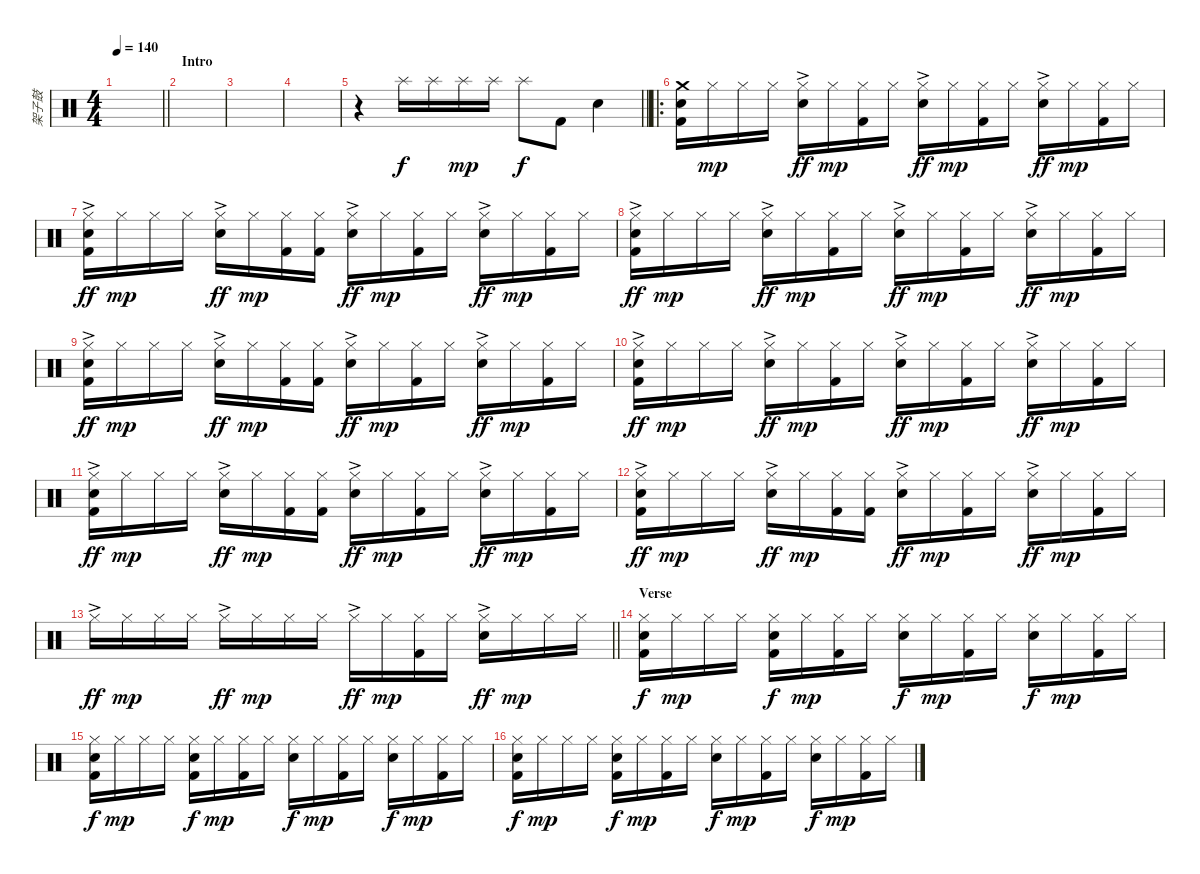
\track ("架子鼓" "架子鼓") {instrument percussion}
\staff {score}
\articulation defaults
\ts (4 4)
\tempo 140
\clef neutral
\barLineRight lightlight
\ks c
|
\section ("" "Intro")
|
|
|
\barLineRight lightlight
r.4 "Splash (hit)".16 "Splash (hit)".16 "Splash (hit)".16{dy mp} "Splash (hit)".16 "Splash (hit)".8{dy f} "Kick (hit) 2".8 "Snare (hit) 2".4 |
\ro
("Crash medium (hit)" "Electric Snare (hit)" "Kick (hit) 2").16 "Hi-Hat (closed)".16{dy mp} "Hi-Hat (closed)".16 "Hi-Hat (closed)".16 ("Hi-Hat (closed)"{ac} "Electric Snare (hit)").16{dy ff} "Hi-Hat (closed)".16{dy mp} ("Hi-Hat (closed)" "Kick (hit) 2").16 "Hi-Hat (closed)".16 ("Hi-Hat (closed)"{ac} "Electric Snare (hit)").16{dy ff} "Hi-Hat (closed)".16{dy mp} ("Hi-Hat (closed)" "Kick (hit) 2").16 "Hi-Hat (closed)".16 ("Hi-Hat (closed)"{ac} "Electric Snare (hit)").16{dy ff} "Hi-Hat (closed)".16{dy mp} ("Hi-Hat (closed)" "Kick (hit) 2").16 "Hi-Hat (closed)".16 |
("Hi-Hat (closed)"{ac} "Electric Snare (hit)" "Kick (hit) 2").16{dy ff} "Hi-Hat (closed)".16{dy mp} "Hi-Hat (closed)".16 "Hi-Hat (closed)".16 ("Hi-Hat (closed)"{ac} "Electric Snare (hit)").16{dy ff} "Hi-Hat (closed)".16{dy mp} ("Hi-Hat (closed)" "Kick (hit) 2").16 ("Hi-Hat (closed)" "Kick (hit) 2").16 ("Hi-Hat (closed)"{ac} "Electric Snare (hit)").16{dy ff} "Hi-Hat (closed)".16{dy mp} ("Hi-Hat (closed)" "Kick (hit) 2").16 "Hi-Hat (closed)".16 ("Hi-Hat (closed)"{ac} "Electric Snare (hit)").16{dy ff} "Hi-Hat (closed)".16{dy mp} ("Hi-Hat (closed)" "Kick (hit) 2").16 "Hi-Hat (closed)".16 |
("Hi-Hat (closed)"{ac} "Electric Snare (hit)" "Kick (hit) 2").16{dy ff} "Hi-Hat (closed)".16{dy mp} "Hi-Hat (closed)".16 "Hi-Hat (closed)".16 ("Hi-Hat (closed)"{ac} "Electric Snare (hit)").16{dy ff} "Hi-Hat (closed)".16{dy mp} ("Hi-Hat (closed)" "Kick (hit) 2").16 "Hi-Hat (closed)".16 ("Hi-Hat (closed)"{ac} "Electric Snare (hit)").16{dy ff} "Hi-Hat (closed)".16{dy mp} ("Hi-Hat (closed)" "Kick (hit) 2").16 "Hi-Hat (closed)".16 ("Hi-Hat (closed)"{ac} "Electric Snare (hit)").16{dy ff} "Hi-Hat (closed)".16{dy mp} ("Hi-Hat (closed)" "Kick (hit) 2").16 "Hi-Hat (closed)".16 |
("Hi-Hat (closed)"{ac} "Electric Snare (hit)" "Kick (hit) 2").16{dy ff} "Hi-Hat (closed)".16{dy mp} "Hi-Hat (closed)".16 "Hi-Hat (closed)".16 ("Hi-Hat (closed)"{ac} "Electric Snare (hit)").16{dy ff} "Hi-Hat (closed)".16{dy mp} ("Hi-Hat (closed)" "Kick (hit) 2").16 ("Hi-Hat (closed)" "Kick (hit) 2").16 ("Hi-Hat (closed)"{ac} "Electric Snare (hit)").16{dy ff} "Hi-Hat (closed)".16{dy mp} ("Hi-Hat (closed)" "Kick (hit) 2").16 "Hi-Hat (closed)".16 ("Hi-Hat (closed)"{ac} "Electric Snare (hit)").16{dy ff} "Hi-Hat (closed)".16{dy mp} ("Hi-Hat (closed)" "Kick (hit) 2").16 "Hi-Hat (closed)".16 |
("Hi-Hat (closed)"{ac} "Electric Snare (hit)" "Kick (hit) 2").16{dy ff} "Hi-Hat (closed)".16{dy mp} "Hi-Hat (closed)".16 "Hi-Hat (closed)".16 ("Hi-Hat (closed)"{ac} "Electric Snare (hit)").16{dy ff} "Hi-Hat (closed)".16{dy mp} ("Hi-Hat (closed)" "Kick (hit) 2").16 "Hi-Hat (closed)".16 ("Hi-Hat (closed)"{ac} "Electric Snare (hit)").16{dy ff} "Hi-Hat (closed)".16{dy mp} ("Hi-Hat (closed)" "Kick (hit) 2").16 "Hi-Hat (closed)".16 ("Hi-Hat (closed)"{ac} "Electric Snare (hit)").16{dy ff} "Hi-Hat (closed)".16{dy mp} ("Hi-Hat (closed)" "Kick (hit) 2").16 "Hi-Hat (closed)".16 |
("Hi-Hat (closed)"{ac} "Electric Snare (hit)" "Kick (hit) 2").16{dy ff} "Hi-Hat (closed)".16{dy mp} "Hi-Hat (closed)".16 "Hi-Hat (closed)".16 ("Hi-Hat (closed)"{ac} "Electric Snare (hit)").16{dy ff} "Hi-Hat (closed)".16{dy mp} ("Hi-Hat (closed)" "Kick (hit) 2").16 ("Hi-Hat (closed)" "Kick (hit) 2").16 ("Hi-Hat (closed)"{ac} "Electric Snare (hit)").16{dy ff} "Hi-Hat (closed)".16{dy mp} ("Hi-Hat (closed)" "Kick (hit) 2").16 "Hi-Hat (closed)".16 ("Hi-Hat (closed)"{ac} "Electric Snare (hit)").16{dy ff} "Hi-Hat (closed)".16{dy mp} ("Hi-Hat (closed)" "Kick (hit) 2").16 "Hi-Hat (closed)".16 |
("Hi-Hat (closed)"{ac} "Electric Snare (hit)" "Kick (hit) 2").16{dy ff} "Hi-Hat (closed)".16{dy mp} "Hi-Hat (closed)".16 "Hi-Hat (closed)".16 ("Hi-Hat (closed)"{ac} "Electric Snare (hit)").16{dy ff} "Hi-Hat (closed)".16{dy mp} ("Hi-Hat (closed)" "Kick (hit) 2").16 ("Hi-Hat (closed)" "Kick (hit) 2").16 ("Hi-Hat (closed)"{ac} "Electric Snare (hit)").16{dy ff} "Hi-Hat (closed)".16{dy mp} ("Hi-Hat (closed)" "Kick (hit) 2").16 "Hi-Hat (closed)".16 ("Hi-Hat (closed)"{ac} "Electric Snare (hit)").16{dy ff} "Hi-Hat (closed)".16{dy mp} ("Hi-Hat (closed)" "Kick (hit) 2").16 "Hi-Hat (closed)".16 |
\barLineRight lightlight "Hi-Hat (closed)"{ac}.16{dy ff} "Hi-Hat (closed)".16{dy mp} "Hi-Hat (closed)".16 "Hi-Hat (closed)".16 "Hi-Hat (closed)"{ac}.16{dy ff} "Hi-Hat (closed)".16{dy mp} "Hi-Hat (closed)".16 "Hi-Hat (closed)".16 "Hi-Hat (closed)"{ac}.16{dy ff} "Hi-Hat (closed)".16{dy mp}
("Hi-Hat (closed)" "Kick (hit) 2").16 "Hi-Hat (closed)".16 ("Hi-Hat (closed)"{ac} "Electric Snare (hit)").16{dy ff} "Hi-Hat (closed)".16{dy mp} "Hi-Hat (closed)".16 "Hi-Hat (closed)".16 |
\section ("" "Verse")
("Hi-Hat (closed)" "Electric Snare (hit)" "Kick (hit) 2").16{dy f} "Hi-Hat (closed)".16{dy mp} "Hi-Hat (closed)".16 "Hi-Hat (closed)".16 ("Hi-Hat (closed)" "Electric Snare (hit)" "Kick (hit) 2").16{dy f} "Hi-Hat (closed)".16{dy mp} ("Hi-Hat (closed)" "Kick (hit) 2").16 "Hi-Hat (closed)".16 ("Hi-Hat (closed)" "Electric Snare (hit)").16{dy f} "Hi-Hat (closed)".16{dy mp} ("Hi-Hat (closed)" "Kick (hit) 2").16 "Hi-Hat (closed)".16 ("Hi-Hat (closed)" "Electric Snare (hit)").16{dy f} "Hi-Hat (closed)".16{dy mp} ("Hi-Hat (closed)" "Kick (hit) 2").16 "Hi-Hat (closed)".16 |
("Hi-Hat (closed)" "Electric Snare (hit)" "Kick (hit) 2").16{dy f} "Hi-Hat (closed)".16{dy mp} "Hi-Hat (closed)".16 "Hi-Hat (closed)".16 ("Hi-Hat (closed)" "Electric Snare (hit)" "Kick (hit) 2").16{dy f} "Hi-Hat (closed)".16{dy mp} ("Hi-Hat (closed)" "Kick (hit) 2").16 "Hi-Hat (closed)".16 ("Hi-Hat (closed)" "Electric Snare (hit)").16{dy f} "Hi-Hat (closed)".16{dy mp} ("Hi-Hat (closed)" "Kick (hit) 2").16 "Hi-Hat (closed)".16 ("Hi-Hat (closed)" "Electric Snare (hit)").16{dy f} "Hi-Hat (closed)".16{dy mp} ("Hi-Hat (closed)" "Kick (hit) 2").16 "Hi-Hat (closed)".16 |
("Hi-Hat (closed)" "Electric Snare (hit)" "Kick (hit) 2").16{dy f} "Hi-Hat (closed)".16{dy mp} "Hi-Hat (closed)".16 "Hi-Hat (closed)".16 ("Hi-Hat (closed)" "Electric Snare (hit)" "Kick (hit) 2").16{dy f} "Hi-Hat (closed)".16{dy mp} ("Hi-Hat (closed)" "Kick (hit) 2").16 "Hi-Hat (closed)".16 ("Hi-Hat (closed)" "Electric Snare (hit)").16{dy f} "Hi-Hat (closed)".16{dy mp} ("Hi-Hat (closed)" "Kick (hit) 2").16 "Hi-Hat (closed)".16 ("Hi-Hat (closed)" "Electric Snare (hit)").16{dy f} "Hi-Hat (closed)".16{dy mp} ("Hi-Hat (closed)" "Kick (hit) 2").16 "Hi-Hat (closed)".16
